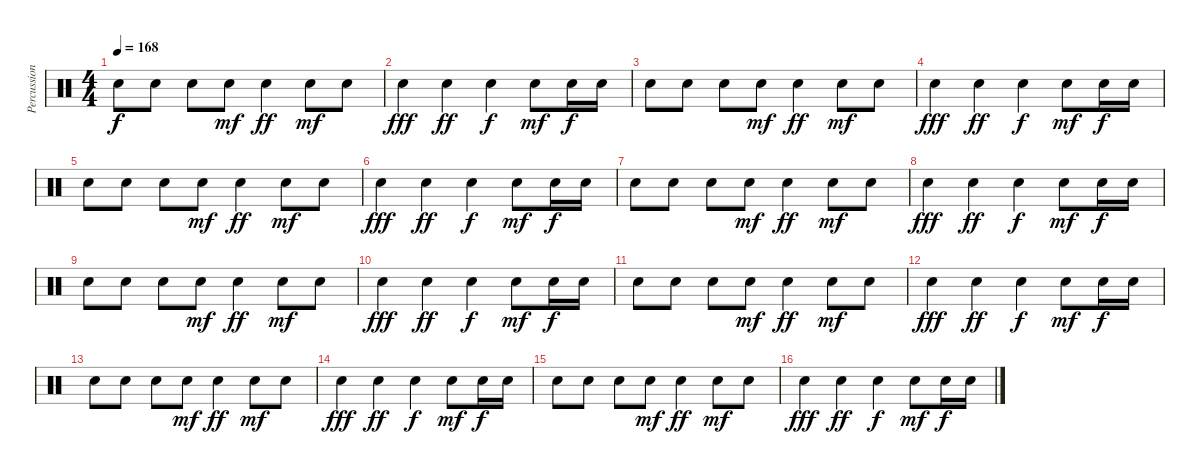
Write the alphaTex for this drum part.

\track ("Percussion" "Percussion") {instrument percussion}
\staff {score}
\articulation defaults
\ts (4 4)
\tempo 168
\clef neutral
\ks c "Snare (hit) 2".8{dy f} "Snare (hit) 2".8 "Snare (hit) 2".8 "Snare (hit) 2".8{dy mf} "Snare (hit) 2".4{dy ff} "Snare (hit) 2".8{dy mf} "Snare (hit) 2".8
|
"Snare (hit) 2".4{dy fff} "Snare (hit) 2".4{dy ff} "Snare (hit) 2".4{dy f} "Snare (hit) 2".8{dy mf} "Snare (hit) 2".16{dy f} "Snare (hit) 2".16 |
"Snare (hit) 2".8 "Snare (hit) 2".8 "Snare (hit) 2".8 "Snare (hit) 2".8{dy mf} "Snare (hit) 2".4{dy ff} "Snare (hit) 2".8{dy mf} "Snare (hit) 2".8 |
"Snare (hit) 2".4{dy fff} "Snare (hit) 2".4{dy ff} "Snare (hit) 2".4{dy f} "Snare (hit) 2".8{dy mf} "Snare (hit) 2".16{dy f} "Snare (hit) 2".16 |
"Snare (hit) 2".8 "Snare (hit) 2".8 "Snare (hit) 2".8 "Snare (hit) 2".8{dy mf} "Snare (hit) 2".4{dy ff} "Snare (hit) 2".8{dy mf} "Snare (hit) 2".8 |
"Snare (hit) 2".4{dy fff} "Snare (hit) 2".4{dy ff} "Snare (hit) 2".4{dy f} "Snare (hit) 2".8{dy mf} "Snare (hit) 2".16{dy f} "Snare (hit) 2".16 |
"Snare (hit) 2".8 "Snare (hit) 2".8 "Snare (hit) 2".8 "Snare (hit) 2".8{dy mf} "Snare (hit) 2".4{dy ff} "Snare (hit) 2".8{dy mf} "Snare (hit) 2".8 |
"Snare (hit) 2".4{dy fff} "Snare (hit) 2".4{dy ff} "Snare (hit) 2".4{dy f} "Snare (hit) 2".8{dy mf} "Snare (hit) 2".16{dy f} "Snare (hit) 2".16 |
"Snare (hit) 2".8 "Snare (hit) 2".8 "Snare (hit) 2".8 "Snare (hit) 2".8{dy mf} "Snare (hit) 2".4{dy ff} "Snare (hit) 2".8{dy mf} "Snare (hit) 2".8 |
"Snare (hit) 2".4{dy fff} "Snare (hit) 2".4{dy ff} "Snare (hit) 2".4{dy f} "Snare (hit) 2".8{dy mf} "Snare (hit) 2".16{dy f} "Snare (hit) 2".16 |
"Snare (hit) 2".8 "Snare (hit) 2".8 "Snare (hit) 2".8 "Snare (hit) 2".8{dy mf} "Snare (hit) 2".4{dy ff} "Snare (hit) 2".8{dy mf} "Snare (hit) 2".8 |
"Snare (hit) 2".4{dy fff} "Snare (hit) 2".4{dy ff} "Snare (hit) 2".4{dy f} "Snare (hit) 2".8{dy mf} "Snare (hit) 2".16{dy f} "Snare (hit) 2".16 |
"Snare (hit) 2".8 "Snare (hit) 2".8 "Snare (hit) 2".8 "Snare (hit) 2".8{dy mf} "Snare (hit) 2".4{dy ff} "Snare (hit) 2".8{dy mf} "Snare (hit) 2".8 |
"Snare (hit) 2".4{dy fff} "Snare (hit) 2".4{dy ff} "Snare (hit) 2".4{dy f} "Snare (hit) 2".8{dy mf} "Snare (hit) 2".16{dy f} "Snare (hit) 2".16 |
"Snare (hit) 2".8 "Snare (hit) 2".8 "Snare (hit) 2".8 "Snare (hit) 2".8{dy mf} "Snare (hit) 2".4{dy ff} "Snare (hit) 2".8{dy mf} "Snare (hit) 2".8 |
"Snare (hit) 2".4{dy fff} "Snare (hit) 2".4{dy ff} "Snare (hit) 2".4{dy f} "Snare (hit) 2".8{dy mf} "Snare (hit) 2".16{dy f} "Snare (hit) 2".16
